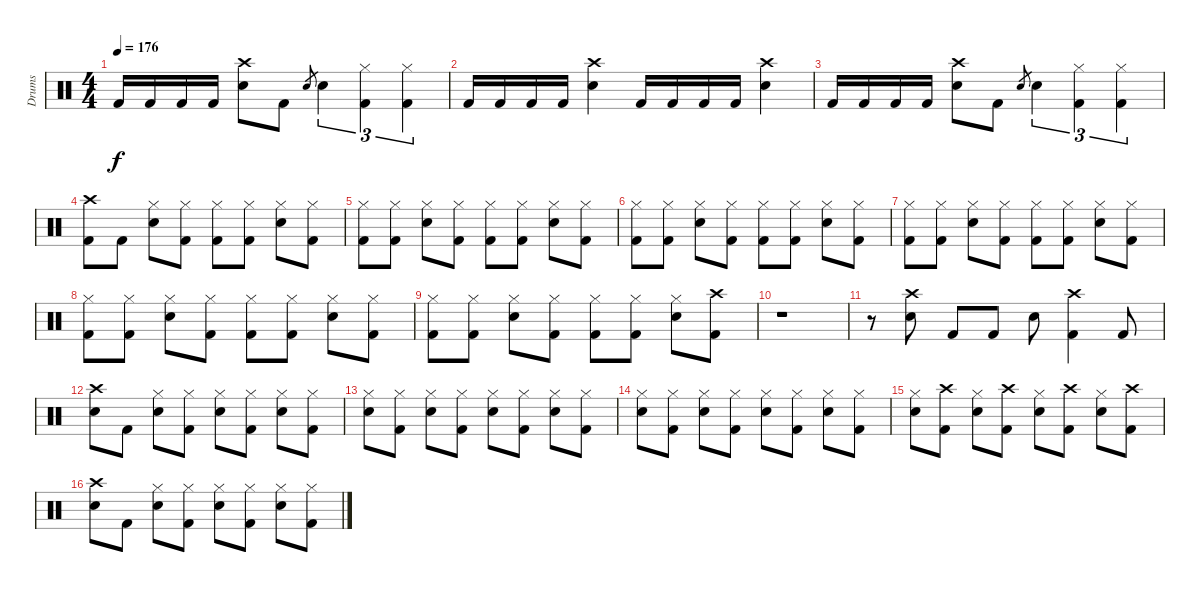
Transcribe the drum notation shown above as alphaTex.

\track ("Drums" "Drums") {instrument percussion}
\staff {score}
\articulation defaults
\ts (4 4)
\tempo 176
\clef neutral
\ks c "Kick (hit) 2".16{dy f} "Kick (hit) 2".16 "Kick (hit) 2".16 "Kick (hit) 2".16
("Crash high (hit)" "Electric Snare (hit)").8 "Kick (hit) 2".8 "Electric Snare (hit)".8{gr} "Electric Snare (hit)".4{tu (3 2)} ("Hi-Hat (closed)" "Kick (hit) 2").4{tu (3 2)} ("Hi-Hat (closed)" "Kick (hit) 2").4{tu (3 2)} |
"Kick (hit) 2".16 "Kick (hit) 2".16 "Kick (hit) 2".16 "Kick (hit) 2".16 ("Crash high (hit)" "Electric Snare (hit)").4 "Kick (hit) 2".16 "Kick (hit) 2".16 "Kick (hit) 2".16 "Kick (hit) 2".16 ("Crash high (hit)" "Electric Snare (hit)").4 |
"Kick (hit) 2".16 "Kick (hit) 2".16 "Kick (hit) 2".16 "Kick (hit) 2".16 ("Crash high (hit)" "Electric Snare (hit)").8 "Kick (hit) 2".8 "Electric Snare (hit)".8{gr} "Electric Snare (hit)".4{tu (3 2)} ("Hi-Hat (closed)" "Kick (hit) 2").4{tu (3 2)} ("Hi-Hat (closed)" "Kick (hit) 2").4{tu (3 2)} |
("Crash high (hit)" "Kick (hit) 2").8 "Kick (hit) 2".8 ("Hi-Hat (closed)" "Electric Snare (hit)").8 ("Hi-Hat (closed)" "Kick (hit) 2").8 ("Hi-Hat (closed)" "Kick (hit) 2").8 ("Hi-Hat (closed)" "Kick (hit) 2").8 ("Hi-Hat (closed)" "Electric Snare (hit)").8 ("Hi-Hat (closed)" "Kick (hit) 2").8 |
("Hi-Hat (closed)" "Kick (hit) 2").8 ("Hi-Hat (closed)" "Kick (hit) 2").8 ("Hi-Hat (closed)" "Electric Snare (hit)").8 ("Hi-Hat (closed)" "Kick (hit) 2").8 ("Hi-Hat (closed)" "Kick (hit) 2").8 ("Hi-Hat (closed)" "Kick (hit) 2").8 ("Hi-Hat (closed)" "Electric Snare (hit)").8 ("Hi-Hat (closed)" "Kick (hit) 2").8 |
("Hi-Hat (closed)" "Kick (hit) 2").8 ("Hi-Hat (closed)" "Kick (hit) 2").8 ("Hi-Hat (closed)" "Electric Snare (hit)").8 ("Hi-Hat (closed)" "Kick (hit) 2").8 ("Hi-Hat (closed)" "Kick (hit) 2").8 ("Hi-Hat (closed)" "Kick (hit) 2").8 ("Hi-Hat (closed)" "Electric Snare (hit)").8 ("Hi-Hat (closed)" "Kick (hit) 2").8 |
("Hi-Hat (closed)" "Kick (hit) 2").8 ("Hi-Hat (closed)" "Kick (hit) 2").8 ("Hi-Hat (closed)" "Electric Snare (hit)").8 ("Hi-Hat (closed)" "Kick (hit) 2").8 ("Hi-Hat (closed)" "Kick (hit) 2").8 ("Hi-Hat (closed)" "Kick (hit) 2").8 ("Hi-Hat (closed)" "Electric Snare (hit)").8 ("Hi-Hat (closed)" "Kick (hit) 2").8 |
("Hi-Hat (closed)" "Kick (hit) 2").8 ("Hi-Hat (closed)" "Kick (hit) 2").8 ("Hi-Hat (closed)" "Electric Snare (hit)").8 ("Hi-Hat (closed)" "Kick (hit) 2").8 ("Hi-Hat (closed)" "Kick (hit) 2").8 ("Hi-Hat (closed)" "Kick (hit) 2").8 ("Hi-Hat (closed)" "Electric Snare (hit)").8 ("Hi-Hat (closed)" "Kick (hit) 2").8 |
("Hi-Hat (closed)" "Kick (hit) 2").8 ("Hi-Hat (closed)" "Kick (hit) 2").8 ("Hi-Hat (closed)" "Electric Snare (hit)").8 ("Hi-Hat (closed)" "Kick (hit) 2").8 ("Hi-Hat (closed)" "Kick (hit) 2").8 ("Hi-Hat (closed)" "Kick (hit) 2").8 ("Hi-Hat (closed)" "Electric Snare (hit)").8 ("Crash high (hit)" "Kick (hit) 2").8 |
r.1 |
r.8 ("Crash high (hit)" "Electric Snare (hit)").8 "Kick (hit) 2".8 "Kick (hit) 2".8 "Electric Snare (hit)".8 ("Crash high (hit)" "Kick (hit) 2").4 "Kick (hit) 2".8 |
("Crash high (hit)" "Electric Snare (hit)").8 "Kick (hit) 2".8 ("Hi-Hat (closed)" "Electric Snare (hit)").8 ("Hi-Hat (closed)" "Kick (hit) 2").8 ("Hi-Hat (closed)" "Electric Snare (hit)").8 ("Hi-Hat (closed)" "Kick (hit) 2").8 ("Hi-Hat (closed)" "Electric Snare (hit)").8 ("Hi-Hat (closed)" "Kick (hit) 2").8 |
("Hi-Hat (closed)" "Electric Snare (hit)").8 ("Hi-Hat (closed)" "Kick (hit) 2").8 ("Hi-Hat (closed)" "Electric Snare (hit)").8 ("Hi-Hat (closed)" "Kick (hit) 2").8 ("Hi-Hat (closed)" "Electric Snare (hit)").8 ("Hi-Hat (closed)" "Kick (hit) 2").8 ("Hi-Hat (closed)" "Electric Snare (hit)").8 ("Hi-Hat (closed)" "Kick (hit) 2").8 |
("Hi-Hat (closed)" "Electric Snare (hit)").8 ("Hi-Hat (closed)" "Kick (hit) 2").8 ("Hi-Hat (closed)" "Electric Snare (hit)").8 ("Hi-Hat (closed)" "Kick (hit) 2").8 ("Hi-Hat (closed)" "Electric Snare (hit)").8 ("Hi-Hat (closed)" "Kick (hit) 2").8 ("Hi-Hat (closed)" "Electric Snare (hit)").8 ("Hi-Hat (closed)" "Kick (hit) 2").8 |
("Hi-Hat (closed)" "Electric Snare (hit)").8 ("Crash high (hit)" "Kick (hit) 2").8 ("Hi-Hat (closed)" "Electric Snare (hit)").8 ("Crash high (hit)" "Kick (hit) 2").8 ("Hi-Hat (closed)" "Electric Snare (hit)").8 ("Crash high (hit)" "Kick (hit) 2").8 ("Hi-Hat (closed)" "Electric Snare (hit)").8 ("Crash high (hit)" "Kick (hit) 2").8 |
("Crash high (hit)" "Electric Snare (hit)").8 "Kick (hit) 2".8 ("Hi-Hat (closed)" "Electric Snare (hit)").8 ("Hi-Hat (closed)" "Kick (hit) 2").8 ("Hi-Hat (closed)" "Electric Snare (hit)").8 ("Hi-Hat (closed)" "Kick (hit) 2").8 ("Hi-Hat (closed)" "Electric Snare (hit)").8 ("Hi-Hat (closed)" "Kick (hit) 2").8
